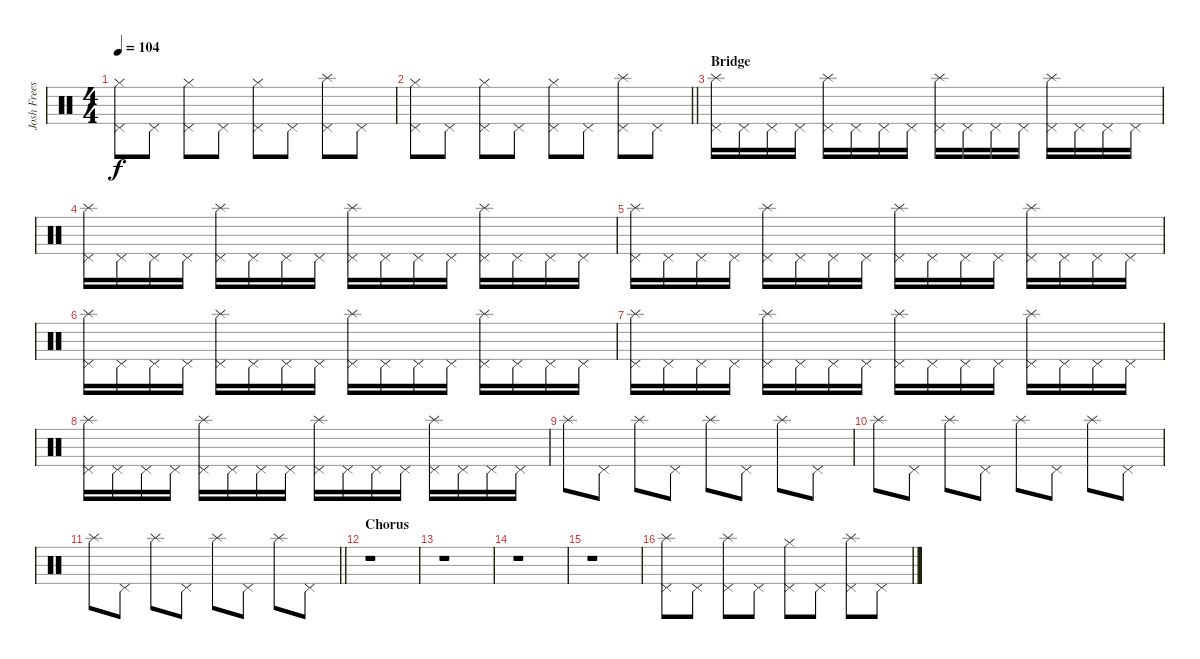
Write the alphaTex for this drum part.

\track ("Josh Freese (Studio Drummer)" "Josh Frees") {instrument percussion}
\staff {score}
\articulation defaults
\ts (4 4)
\tempo 104
\clef neutral
\ks c
("Hi-Hat (closed)" "Pedal Hi-Hat (hit)").8{dy f} "Pedal Hi-Hat (hit)".8 ("Hi-Hat (closed)" "Pedal Hi-Hat (hit)").8 "Pedal Hi-Hat (hit)".8 ("Hi-Hat (closed)" "Pedal Hi-Hat (hit)").8 "Pedal Hi-Hat (hit)".8 ("Splash (hit)" "Pedal Hi-Hat (hit)").8 "Pedal Hi-Hat (hit)".8 |
\barLineRight lightlight
("Hi-Hat (closed)" "Pedal Hi-Hat (hit)").8 "Pedal Hi-Hat (hit)".8 ("Hi-Hat (closed)" "Pedal Hi-Hat (hit)").8 "Pedal Hi-Hat (hit)".8 ("Hi-Hat (closed)" "Pedal Hi-Hat (hit)").8 "Pedal Hi-Hat (hit)".8 ("Splash (hit)" "Pedal Hi-Hat (hit)").8 "Pedal Hi-Hat (hit)".8 |
\section ("" "Bridge")
("Splash (hit)" "Pedal Hi-Hat (hit)").16 "Pedal Hi-Hat (hit)".16 "Pedal Hi-Hat (hit)".16 "Pedal Hi-Hat (hit)".16 ("Splash (hit)" "Pedal Hi-Hat (hit)").16 "Pedal Hi-Hat (hit)".16 "Pedal Hi-Hat (hit)".16 "Pedal Hi-Hat (hit)".16 ("Splash (hit)" "Pedal Hi-Hat (hit)").16 "Pedal Hi-Hat (hit)".16 "Pedal Hi-Hat (hit)".16 "Pedal Hi-Hat (hit)".16 ("Splash (hit)" "Pedal Hi-Hat (hit)").16 "Pedal Hi-Hat (hit)".16 "Pedal Hi-Hat (hit)".16 "Pedal Hi-Hat (hit)".16 |
("Splash (hit)" "Pedal Hi-Hat (hit)").16 "Pedal Hi-Hat (hit)".16 "Pedal Hi-Hat (hit)".16 "Pedal Hi-Hat (hit)".16 ("Splash (hit)" "Pedal Hi-Hat (hit)").16 "Pedal Hi-Hat (hit)".16 "Pedal Hi-Hat (hit)".16 "Pedal Hi-Hat (hit)".16 ("Splash (hit)" "Pedal Hi-Hat (hit)").16 "Pedal Hi-Hat (hit)".16 "Pedal Hi-Hat (hit)".16 "Pedal Hi-Hat (hit)".16 ("Splash (hit)" "Pedal Hi-Hat (hit)").16 "Pedal Hi-Hat (hit)".16 "Pedal Hi-Hat (hit)".16 "Pedal Hi-Hat (hit)".16 |
("Splash (hit)" "Pedal Hi-Hat (hit)").16 "Pedal Hi-Hat (hit)".16 "Pedal Hi-Hat (hit)".16 "Pedal Hi-Hat (hit)".16 ("Splash (hit)" "Pedal Hi-Hat (hit)").16 "Pedal Hi-Hat (hit)".16 "Pedal Hi-Hat (hit)".16 "Pedal Hi-Hat (hit)".16 ("Splash (hit)" "Pedal Hi-Hat (hit)").16 "Pedal Hi-Hat (hit)".16 "Pedal Hi-Hat (hit)".16 "Pedal Hi-Hat (hit)".16 ("Splash (hit)" "Pedal Hi-Hat (hit)").16 "Pedal Hi-Hat (hit)".16 "Pedal Hi-Hat (hit)".16 "Pedal Hi-Hat (hit)".16 |
("Splash (hit)" "Pedal Hi-Hat (hit)").16 "Pedal Hi-Hat (hit)".16 "Pedal Hi-Hat (hit)".16 "Pedal Hi-Hat (hit)".16 ("Splash (hit)" "Pedal Hi-Hat (hit)").16 "Pedal Hi-Hat (hit)".16 "Pedal Hi-Hat (hit)".16 "Pedal Hi-Hat (hit)".16 ("Splash (hit)" "Pedal Hi-Hat (hit)").16 "Pedal Hi-Hat (hit)".16 "Pedal Hi-Hat (hit)".16 "Pedal Hi-Hat (hit)".16 ("Splash (hit)" "Pedal Hi-Hat (hit)").16 "Pedal Hi-Hat (hit)".16 "Pedal Hi-Hat (hit)".16 "Pedal Hi-Hat (hit)".16 |
("Splash (hit)" "Pedal Hi-Hat (hit)").16 "Pedal Hi-Hat (hit)".16 "Pedal Hi-Hat (hit)".16 "Pedal Hi-Hat (hit)".16 ("Splash (hit)" "Pedal Hi-Hat (hit)").16 "Pedal Hi-Hat (hit)".16 "Pedal Hi-Hat (hit)".16 "Pedal Hi-Hat (hit)".16 ("Splash (hit)" "Pedal Hi-Hat (hit)").16 "Pedal Hi-Hat (hit)".16 "Pedal Hi-Hat (hit)".16 "Pedal Hi-Hat (hit)".16 ("Splash (hit)" "Pedal Hi-Hat (hit)").16 "Pedal Hi-Hat (hit)".16 "Pedal Hi-Hat (hit)".16 "Pedal Hi-Hat (hit)".16 |
("Splash (hit)" "Pedal Hi-Hat (hit)").16 "Pedal Hi-Hat (hit)".16 "Pedal Hi-Hat (hit)".16 "Pedal Hi-Hat (hit)".16 ("Splash (hit)" "Pedal Hi-Hat (hit)").16 "Pedal Hi-Hat (hit)".16 "Pedal Hi-Hat (hit)".16 "Pedal Hi-Hat (hit)".16 ("Splash (hit)" "Pedal Hi-Hat (hit)").16 "Pedal Hi-Hat (hit)".16 "Pedal Hi-Hat (hit)".16 "Pedal Hi-Hat (hit)".16 ("Splash (hit)" "Pedal Hi-Hat (hit)").16 "Pedal Hi-Hat (hit)".16 "Pedal Hi-Hat (hit)".16 "Pedal Hi-Hat (hit)".16 |
"Splash (hit)".8 "Pedal Hi-Hat (hit)".8 "Splash (hit)".8 "Pedal Hi-Hat (hit)".8 "Splash (hit)".8 "Pedal Hi-Hat (hit)".8 "Splash (hit)".8 "Pedal Hi-Hat (hit)".8 |
"Splash (hit)".8 "Pedal Hi-Hat (hit)".8 "Splash (hit)".8 "Pedal Hi-Hat (hit)".8 "Splash (hit)".8 "Pedal Hi-Hat (hit)".8 "Splash (hit)".8 "Pedal Hi-Hat (hit)".8 |
\barLineRight lightlight "Splash (hit)".8 "Pedal Hi-Hat (hit)".8 "Splash (hit)".8 "Pedal Hi-Hat (hit)".8 "Splash (hit)".8 "Pedal Hi-Hat (hit)".8 "Splash (hit)".8 "Pedal Hi-Hat (hit)".8
|
\section ("" "Chorus")
r.1 |
r.1 |
r.1 |
r.1 |
("Splash (hit)" "Pedal Hi-Hat (hit)").8 "Pedal Hi-Hat (hit)".8 ("Splash (hit)" "Pedal Hi-Hat (hit)").8 "Pedal Hi-Hat (hit)".8 ("Hi-Hat (closed)" "Pedal Hi-Hat (hit)").8 "Pedal Hi-Hat (hit)".8 ("Splash (hit)" "Pedal Hi-Hat (hit)").8 "Pedal Hi-Hat (hit)".8
